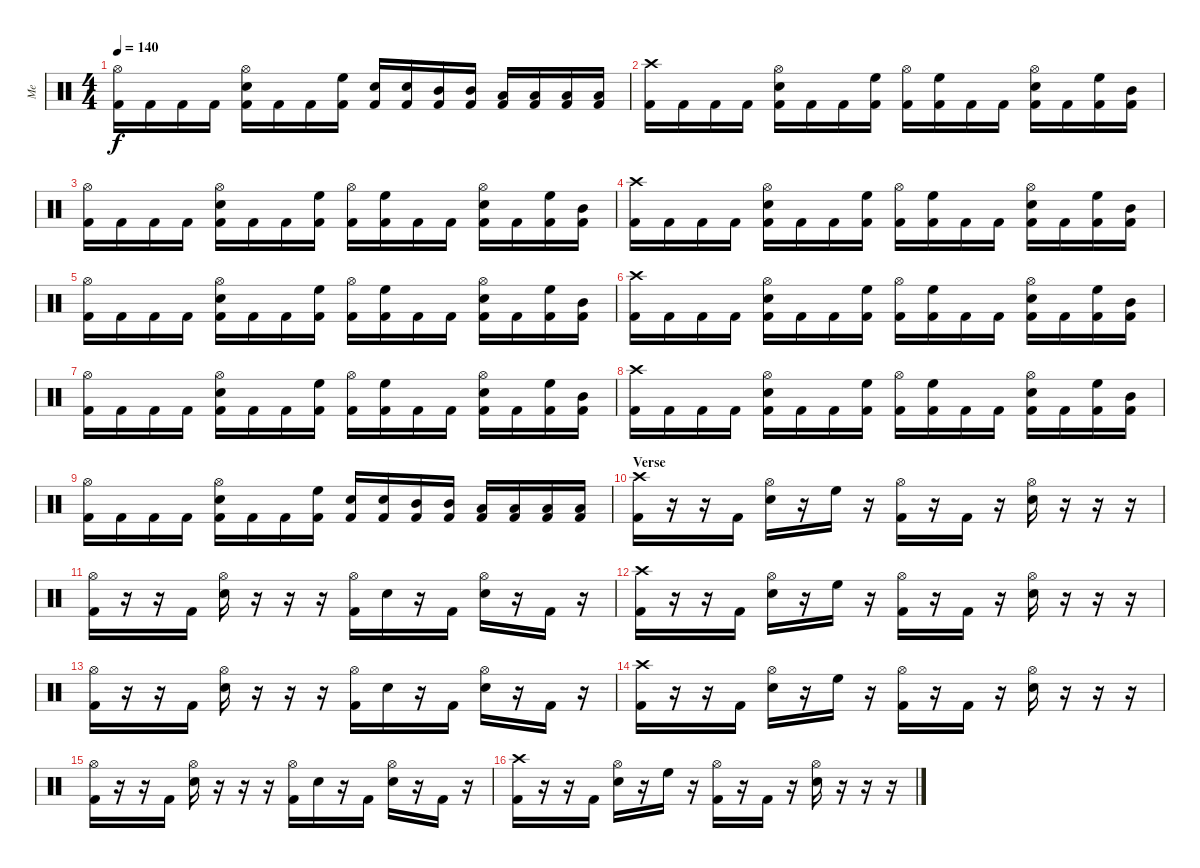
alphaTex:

\track ("Me" "Me") {instrument percussion}
\staff {score}
\articulation defaults
\ts (4 4)
\tempo 140
\clef neutral
\ks c
("Hi-Hat (open)" "Kick (hit) 2").16{dy f} "Kick (hit) 2".16 "Kick (hit) 2".16 "Kick (hit) 2".16 ("Hi-Hat (open)" "Electric Snare (hit)" "Kick (hit) 2").16 "Kick (hit) 2".16 "Kick (hit) 2".16 ("High Floor Tom (hit)" "Kick (hit) 2").16 ("Electric Snare (hit)" "Kick (hit) 2").16 ("Electric Snare (hit)" "Kick (hit) 2").16 ("Mid Tom (hit)" "Kick (hit) 2").16 ("Mid Tom (hit)" "Kick (hit) 2").16 ("Low Tom (hit)" "Kick (hit) 2").16 ("Low Tom (hit)" "Kick (hit) 2").16 ("Low Floor Tom (hit)" "Kick (hit) 2").16 ("Low Floor Tom (hit)" "Kick (hit) 2").16 |
("Crash high (hit)" "Kick (hit) 2").16 "Kick (hit) 2".16 "Kick (hit) 2".16 "Kick (hit) 2".16 ("Hi-Hat (open)" "Electric Snare (hit)" "Kick (hit) 2").16 "Kick (hit) 2".16 "Kick (hit) 2".16 ("High Floor Tom (hit)" "Kick (hit) 2").16 ("Hi-Hat (open)" "Kick (hit) 2").16 ("High Floor Tom (hit)" "Kick (hit) 2").16 "Kick (hit) 2".16 "Kick (hit) 2".16 ("Hi-Hat (open)" "Electric Snare (hit)" "Kick (hit) 2").16 "Kick (hit) 2".16 ("High Floor Tom (hit)" "Kick (hit) 2").16 ("Mid Tom (hit)" "Kick (hit) 2").16 |
("Hi-Hat (open)" "Kick (hit) 2").16 "Kick (hit) 2".16 "Kick (hit) 2".16 "Kick (hit) 2".16 ("Hi-Hat (open)" "Electric Snare (hit)" "Kick (hit) 2").16 "Kick (hit) 2".16 "Kick (hit) 2".16 ("High Floor Tom (hit)" "Kick (hit) 2").16 ("Hi-Hat (open)" "Kick (hit) 2").16 ("High Floor Tom (hit)" "Kick (hit) 2").16 "Kick (hit) 2".16 "Kick (hit) 2".16 ("Hi-Hat (open)" "Electric Snare (hit)" "Kick (hit) 2").16 "Kick (hit) 2".16 ("High Floor Tom (hit)" "Kick (hit) 2").16 ("Mid Tom (hit)" "Kick (hit) 2").16 |
("Crash high (hit)" "Kick (hit) 2").16 "Kick (hit) 2".16 "Kick (hit) 2".16 "Kick (hit) 2".16 ("Hi-Hat (open)" "Electric Snare (hit)" "Kick (hit) 2").16 "Kick (hit) 2".16 "Kick (hit) 2".16 ("High Floor Tom (hit)" "Kick (hit) 2").16 ("Hi-Hat (open)" "Kick (hit) 2").16 ("High Floor Tom (hit)" "Kick (hit) 2").16 "Kick (hit) 2".16 "Kick (hit) 2".16 ("Hi-Hat (open)" "Electric Snare (hit)" "Kick (hit) 2").16 "Kick (hit) 2".16 ("High Floor Tom (hit)" "Kick (hit) 2").16 ("Mid Tom (hit)" "Kick (hit) 2").16 |
("Hi-Hat (open)" "Kick (hit) 2").16 "Kick (hit) 2".16 "Kick (hit) 2".16 "Kick (hit) 2".16 ("Hi-Hat (open)" "Electric Snare (hit)" "Kick (hit) 2").16 "Kick (hit) 2".16 "Kick (hit) 2".16 ("High Floor Tom (hit)" "Kick (hit) 2").16 ("Hi-Hat (open)" "Kick (hit) 2").16 ("High Floor Tom (hit)" "Kick (hit) 2").16 "Kick (hit) 2".16 "Kick (hit) 2".16 ("Hi-Hat (open)" "Electric Snare (hit)" "Kick (hit) 2").16 "Kick (hit) 2".16 ("High Floor Tom (hit)" "Kick (hit) 2").16 ("Mid Tom (hit)" "Kick (hit) 2").16 |
("Crash high (hit)" "Kick (hit) 2").16 "Kick (hit) 2".16 "Kick (hit) 2".16 "Kick (hit) 2".16 ("Hi-Hat (open)" "Electric Snare (hit)" "Kick (hit) 2").16 "Kick (hit) 2".16 "Kick (hit) 2".16 ("High Floor Tom (hit)" "Kick (hit) 2").16 ("Hi-Hat (open)" "Kick (hit) 2").16 ("High Floor Tom (hit)" "Kick (hit) 2").16 "Kick (hit) 2".16 "Kick (hit) 2".16 ("Hi-Hat (open)" "Electric Snare (hit)" "Kick (hit) 2").16 "Kick (hit) 2".16 ("High Floor Tom (hit)" "Kick (hit) 2").16 ("Mid Tom (hit)" "Kick (hit) 2").16 |
("Hi-Hat (open)" "Kick (hit) 2").16 "Kick (hit) 2".16 "Kick (hit) 2".16 "Kick (hit) 2".16 ("Hi-Hat (open)" "Electric Snare (hit)" "Kick (hit) 2").16 "Kick (hit) 2".16 "Kick (hit) 2".16 ("High Floor Tom (hit)" "Kick (hit) 2").16 ("Hi-Hat (open)" "Kick (hit) 2").16 ("High Floor Tom (hit)" "Kick (hit) 2").16 "Kick (hit) 2".16 "Kick (hit) 2".16 ("Hi-Hat (open)" "Electric Snare (hit)" "Kick (hit) 2").16 "Kick (hit) 2".16 ("High Floor Tom (hit)" "Kick (hit) 2").16 ("Mid Tom (hit)" "Kick (hit) 2").16 |
("Crash high (hit)" "Kick (hit) 2").16 "Kick (hit) 2".16 "Kick (hit) 2".16 "Kick (hit) 2".16 ("Hi-Hat (open)" "Electric Snare (hit)" "Kick (hit) 2").16 "Kick (hit) 2".16 "Kick (hit) 2".16 ("High Floor Tom (hit)" "Kick (hit) 2").16 ("Hi-Hat (open)" "Kick (hit) 2").16 ("High Floor Tom (hit)" "Kick (hit) 2").16 "Kick (hit) 2".16 "Kick (hit) 2".16 ("Hi-Hat (open)" "Electric Snare (hit)" "Kick (hit) 2").16 "Kick (hit) 2".16 ("High Floor Tom (hit)" "Kick (hit) 2").16 ("Mid Tom (hit)" "Kick (hit) 2").16 |
("Hi-Hat (open)" "Kick (hit) 2").16 "Kick (hit) 2".16 "Kick (hit) 2".16 "Kick (hit) 2".16 ("Hi-Hat (open)" "Electric Snare (hit)" "Kick (hit) 2").16 "Kick (hit) 2".16 "Kick (hit) 2".16 ("High Floor Tom (hit)" "Kick (hit) 2").16 ("Electric Snare (hit)" "Kick (hit) 2").16 ("Electric Snare (hit)" "Kick (hit) 2").16 ("Mid Tom (hit)" "Kick (hit) 2").16 ("Mid Tom (hit)" "Kick (hit) 2").16 ("Low Tom (hit)" "Kick (hit) 2").16 ("Low Tom (hit)" "Kick (hit) 2").16 ("Low Floor Tom (hit)" "Kick (hit) 2").16 ("Low Floor Tom (hit)" "Kick (hit) 2").16 |
\section ("" "Verse")
("Crash high (hit)" "Kick (hit) 2").16 r.16 r.16 "Kick (hit) 2".16 ("Hi-Hat (open)" "Electric Snare (hit)").16 r.16 "High Floor Tom (hit)".16 r.16 ("Hi-Hat (open)" "Kick (hit) 2").16 r.16 "Kick (hit) 2".16 r.16 ("Hi-Hat (open)" "Electric Snare (hit)").16 r.16 r.16 r.16 |
("Hi-Hat (open)" "Kick (hit) 2").16 r.16 r.16 "Kick (hit) 2".16 ("Hi-Hat (open)" "Electric Snare (hit)").16 r.16 r.16 r.16 ("Hi-Hat (open)" "Kick (hit) 2").16 "Electric Snare (hit)".16 r.16 "Kick (hit) 2".16 ("Hi-Hat (open)" "Electric Snare (hit)").16 r.16 "Kick (hit) 2".16 r.16 |
("Crash high (hit)" "Kick (hit) 2").16 r.16 r.16 "Kick (hit) 2".16 ("Hi-Hat (open)" "Electric Snare (hit)").16 r.16 "High Floor Tom (hit)".16 r.16 ("Hi-Hat (open)" "Kick (hit) 2").16 r.16 "Kick (hit) 2".16 r.16 ("Hi-Hat (open)" "Electric Snare (hit)").16 r.16 r.16 r.16 |
("Hi-Hat (open)" "Kick (hit) 2").16 r.16 r.16 "Kick (hit) 2".16 ("Hi-Hat (open)" "Electric Snare (hit)").16 r.16 r.16 r.16 ("Hi-Hat (open)" "Kick (hit) 2").16 "Electric Snare (hit)".16 r.16 "Kick (hit) 2".16 ("Hi-Hat (open)" "Electric Snare (hit)").16 r.16 "Kick (hit) 2".16 r.16 |
("Crash high (hit)" "Kick (hit) 2").16 r.16 r.16 "Kick (hit) 2".16 ("Hi-Hat (open)" "Electric Snare (hit)").16 r.16 "High Floor Tom (hit)".16 r.16 ("Hi-Hat (open)" "Kick (hit) 2").16 r.16 "Kick (hit) 2".16 r.16 ("Hi-Hat (open)" "Electric Snare (hit)").16 r.16 r.16 r.16 |
("Hi-Hat (open)" "Kick (hit) 2").16 r.16 r.16 "Kick (hit) 2".16 ("Hi-Hat (open)" "Electric Snare (hit)").16 r.16 r.16 r.16 ("Hi-Hat (open)" "Kick (hit) 2").16 "Electric Snare (hit)".16 r.16 "Kick (hit) 2".16 ("Hi-Hat (open)" "Electric Snare (hit)").16 r.16 "Kick (hit) 2".16 r.16 |
("Crash high (hit)" "Kick (hit) 2").16 r.16 r.16 "Kick (hit) 2".16 ("Hi-Hat (open)" "Electric Snare (hit)").16 r.16 "High Floor Tom (hit)".16 r.16 ("Hi-Hat (open)" "Kick (hit) 2").16 r.16 "Kick (hit) 2".16 r.16 ("Hi-Hat (open)" "Electric Snare (hit)").16 r.16 r.16 r.16
